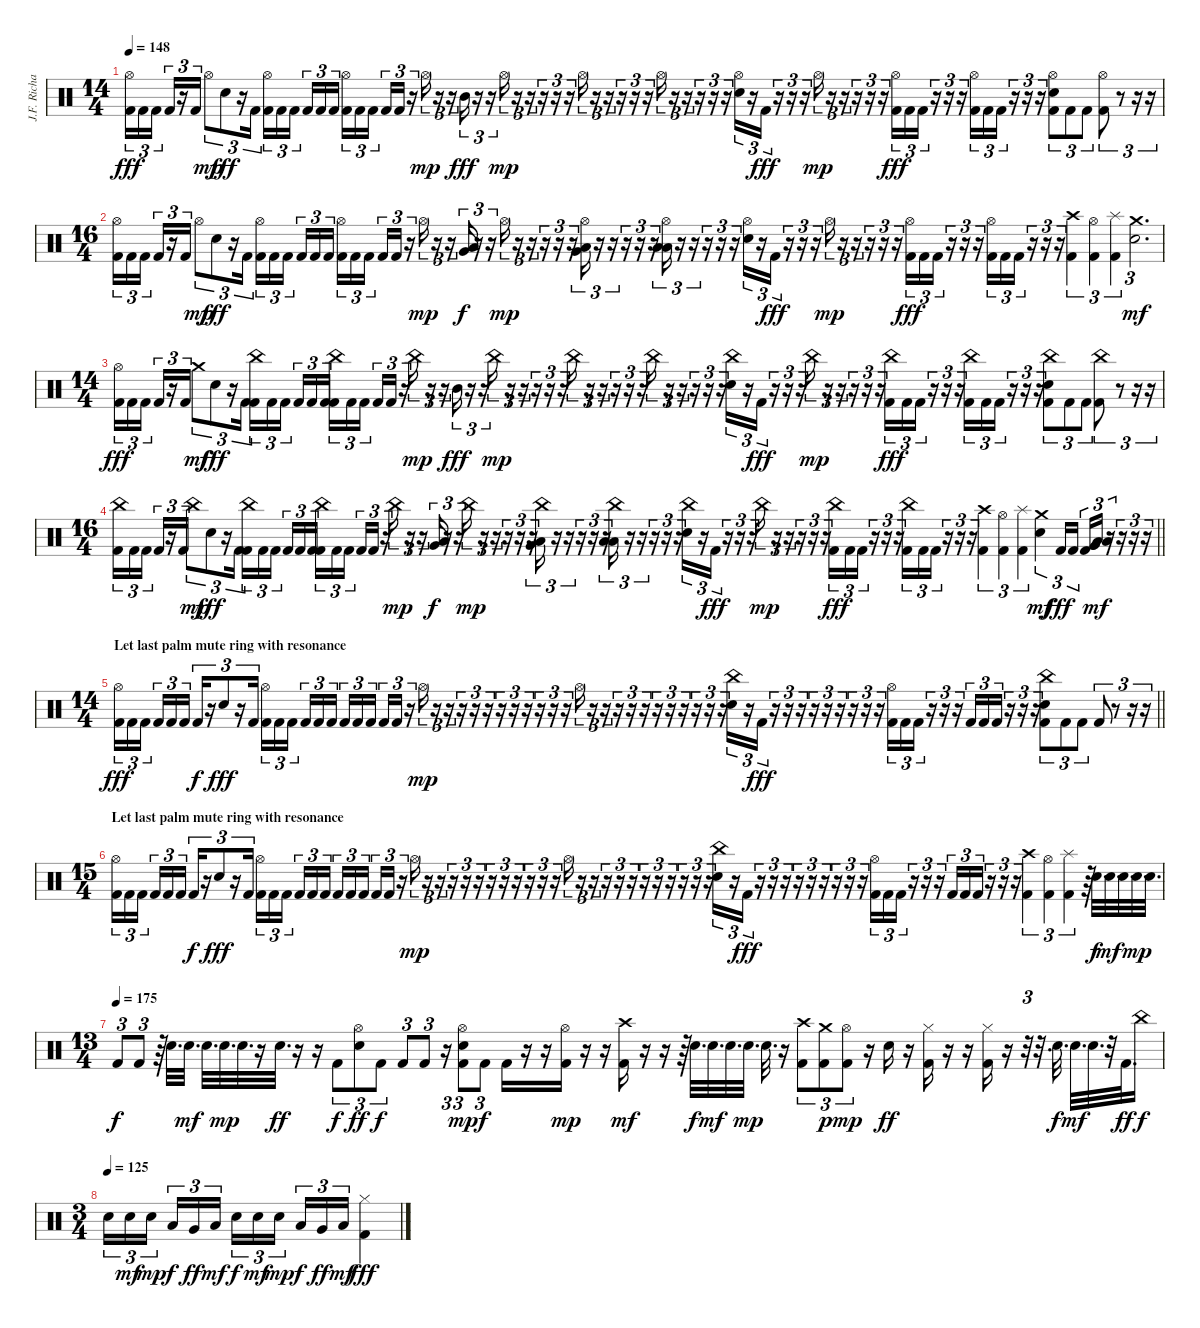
\track ("J.F. Richards" "J.F. Richa") {instrument percussion}
\staff {score}
\articulation defaults
\ts (14 4)
\tempo 148
\clef neutral
\ks c
("Hi-Hat (open)" "Kick (hit) 2").16{tu (3 2) dy fff} "Kick (hit) 2".16{tu (3 2)} "Kick (hit) 2".16{tu (3 2) beam splitsecondary} "Kick (hit) 2".16{tu (3 2)} r.16{tu (3 2)} "Kick (hit) 2".16{tu (3 2)} "Hi-Hat (open)".8{tu (3 2) dy mp} "Electric Snare (hit)".8{tu (3 2) dy fff} r.16{tu (3 2)} "Kick (hit) 2".16{tu (3 2)} ("Hi-Hat (open)" "Kick (hit) 2").16{tu (3 2)} "Kick (hit) 2".16{tu (3 2)} "Kick (hit) 2".16{tu (3 2) beam splitsecondary} "Kick (hit) 2".16{tu (3 2)} "Kick (hit) 2".16{tu (3 2)} "Kick (hit) 2".16{tu (3 2)} ("Hi-Hat (open)" "Kick (hit) 2").16{tu (3 2)} "Kick (hit) 2".16{tu (3 2)} "Kick (hit) 2".16{tu (3 2) beam splitsecondary} "Kick (hit) 2".16{tu (3 2)} "Kick (hit) 2".16{tu (3 2)} r.16{tu (3 2)} "Hi-Hat (open)".16{tu (3 2) dy mp} r.16{tu (3 2)} r.16{tu (3 2)} "Mid Tom (hit)".16{tu (3 2) dy fff} r.16{tu (3 2)} r.16{tu (3 2)} "Hi-Hat (open)".16{tu (3 2) dy mp} r.16{tu (3 2)} r.16{tu (3 2)} r.16{tu (3 2)} r.16{tu (3 2)} r.16{tu (3 2)} "Hi-Hat (open)".16{tu (3 2)} r.16{tu (3 2)} r.16{tu (3 2)} r.16{tu (3 2)} r.16{tu (3 2)} r.16{tu (3 2)} "Hi-Hat (open)".16{tu (3 2)} r.16{tu (3 2)} r.16{tu (3 2)} r.16{tu (3 2)} r.16{tu (3 2)} r.16{tu (3 2)} ("Hi-Hat (open)" "Electric Snare (hit)").16{tu (3 2)} r.16{tu (3 2)} "Kick (hit) 2".16{tu (3 2) dy fff} r.16{tu (3 2)} r.16{tu (3 2)} r.16{tu (3 2)} "Hi-Hat (open)".16{tu (3 2) dy mp} r.16{tu (3 2)} r.16{tu (3 2)} r.16{tu (3 2)} r.16{tu (3 2)} r.16{tu (3 2)} ("Hi-Hat (open)" "Kick (hit) 2").16{tu (3 2) dy fff} "Kick (hit) 2".16{tu (3 2)} "Kick (hit) 2".16{tu (3 2)} r.16{tu (3 2)} r.16{tu (3 2)} r.16{tu (3 2)} ("Hi-Hat (open)" "Kick (hit) 2").16{tu (3 2)} "Kick (hit) 2".16{tu (3 2)} "Kick (hit) 2".16{tu (3 2)} r.16{tu (3 2)} r.16{tu (3 2)} r.16{tu (3 2)} ("Hi-Hat (open)" "Electric Snare (hit)" "Kick (hit) 2").8{tu (3 2)} "Kick (hit) 2".8{tu (3 2)} "Kick (hit) 2".8{tu (3 2)} ("Hi-Hat (open)" "Kick (hit) 2").8{tu (3 2)} r.8{tu (3 2)} r.16{tu (3 2)} r.16{tu (3 2)} |
\ts (16 4)
("Hi-Hat (open)" "Kick (hit) 2").16{tu (3 2)} "Kick (hit) 2".16{tu (3 2)} "Kick (hit) 2".16{tu (3 2) beam splitsecondary} "Kick (hit) 2".16{tu (3 2)} r.16{tu (3 2)} "Kick (hit) 2".16{tu (3 2)} "Hi-Hat (open)".8{tu (3 2) dy mp} "Electric Snare (hit)".8{tu (3 2) dy fff} r.16{tu (3 2)} "Kick (hit) 2".16{tu (3 2)} ("Hi-Hat (open)" "Kick (hit) 2").16{tu (3 2)} "Kick (hit) 2".16{tu (3 2)} "Kick (hit) 2".16{tu (3 2) beam splitsecondary} "Kick (hit) 2".16{tu (3 2)} "Kick (hit) 2".16{tu (3 2)} "Kick (hit) 2".16{tu (3 2)} ("Hi-Hat (open)" "Kick (hit) 2").16{tu (3 2)} "Kick (hit) 2".16{tu (3 2)} "Kick (hit) 2".16{tu (3 2) beam splitsecondary} "Kick (hit) 2".16{tu (3 2)} "Kick (hit) 2".16{tu (3 2)} r.16{tu (3 2)} "Hi-Hat (open)".16{tu (3 2) dy mp} r.16{tu (3 2)} r.16{tu (3 2)} ("Very Low Tom (hit)" "Low Tom (hit)").16{tu (3 2) dy f} r.16{tu (3 2)} r.16{tu (3 2)} "Hi-Hat (open)".16{tu (3 2) dy mp} r.16{tu (3 2)} r.16{tu (3 2)} r.16{tu (3 2)} r.16{tu (3 2)} r.16{tu (3 2)} ("Hi-Hat (open)" "Low Floor Tom (hit)" "Very Low Tom (hit)").16{tu (3 2)} r.16{tu (3 2)} r.16{tu (3 2)} r.16{tu (3 2)} r.16{tu (3 2)} r.16{tu (3 2)} ("Hi-Hat (open)" "Low Floor Tom (hit)" "Low Floor Tom (hit)").16{tu (3 2)} r.16{tu (3 2)} r.16{tu (3 2)} r.16{tu (3 2)} r.16{tu (3 2)} r.16{tu (3 2)} ("Hi-Hat (open)" "Electric Snare (hit)").16{tu (3 2)} r.16{tu (3 2)} "Kick (hit) 2".16{tu (3 2) dy fff} r.16{tu (3 2)} r.16{tu (3 2)} r.16{tu (3 2)} "Hi-Hat (open)".16{tu (3 2) dy mp} r.16{tu (3 2)} r.16{tu (3 2)} r.16{tu (3 2)} r.16{tu (3 2)} r.16{tu (3 2)} ("Hi-Hat (open)" "Kick (hit) 2").16{tu (3 2) dy fff} "Kick (hit) 2".16{tu (3 2)} "Kick (hit) 2".16{tu (3 2)} r.16{tu (3 2)} r.16{tu (3 2)} r.16{tu (3 2)} ("Hi-Hat (open)" "Kick (hit) 2").16{tu (3 2)} "Kick (hit) 2".16{tu (3 2)} "Kick (hit) 2".16{tu (3 2)} r.16{tu (3 2)} r.16{tu (3 2)} r.16{tu (3 2)} ("Crash high (hit)" "Kick (hit) 2").4{tu (3 2)} ("Hi-Hat (open)" "Kick (hit) 2").4{tu (3 2)} ("Splash (hit)" "Kick (hit) 2").4{tu (3 2)} ("Crash medium (hit)" "Electric Snare (hit)").2{d tu (3 2) dy mf} |
\ts (14 4)
("Hi-Hat (open)" "Kick (hit) 2").16{tu (3 2) dy fff} "Kick (hit) 2".16{tu (3 2)} "Kick (hit) 2".16{tu (3 2) beam splitsecondary} "Kick (hit) 2".16{tu (3 2)} r.16{tu (3 2)} "Kick (hit) 2".16{tu (3 2)} "Crash medium (hit)".8{tu (3 2) dy mf} "Electric Snare (hit)".8{tu (3 2) dy fff} r.16{tu (3 2)} "Kick (hit) 2".16{tu (3 2)} ("China (hit)" "Kick (hit) 2").16{tu (3 2)} "Kick (hit) 2".16{tu (3 2)} "Kick (hit) 2".16{tu (3 2) beam splitsecondary} "Kick (hit) 2".16{tu (3 2)} "Kick (hit) 2".16{tu (3 2)} "Kick (hit) 2".16{tu (3 2)} ("China (hit)" "Kick (hit) 2").16{tu (3 2)} "Kick (hit) 2".16{tu (3 2)} "Kick (hit) 2".16{tu (3 2) beam splitsecondary} "Kick (hit) 2".16{tu (3 2)} "Kick (hit) 2".16{tu (3 2)} r.16{tu (3 2)} "China (hit)".16{tu (3 2) dy mp} r.16{tu (3 2)} r.16{tu (3 2)} "Mid Tom (hit)".16{tu (3 2) dy fff} r.16{tu (3 2)} r.16{tu (3 2)} "China (hit)".16{tu (3 2) dy mp} r.16{tu (3 2)} r.16{tu (3 2)} r.16{tu (3 2)} r.16{tu (3 2)} r.16{tu (3 2)} "China (hit)".16{tu (3 2)} r.16{tu (3 2)} r.16{tu (3 2)} r.16{tu (3 2)} r.16{tu (3 2)} r.16{tu (3 2)} "China (hit)".16{tu (3 2)} r.16{tu (3 2)} r.16{tu (3 2)} r.16{tu (3 2)} r.16{tu (3 2)} r.16{tu (3 2)} ("China (hit)" "Electric Snare (hit)").16{tu (3 2)} r.16{tu (3 2)} "Kick (hit) 2".16{tu (3 2) dy fff} r.16{tu (3 2)} r.16{tu (3 2)} r.16{tu (3 2)} "China (hit)".16{tu (3 2) dy mp} r.16{tu (3 2)} r.16{tu (3 2)} r.16{tu (3 2)} r.16{tu (3 2)} r.16{tu (3 2)} ("China (hit)" "Kick (hit) 2").16{tu (3 2) dy fff} "Kick (hit) 2".16{tu (3 2)} "Kick (hit) 2".16{tu (3 2)} r.16{tu (3 2)} r.16{tu (3 2)} r.16{tu (3 2)} ("China (hit)" "Kick (hit) 2").16{tu (3 2)} "Kick (hit) 2".16{tu (3 2)} "Kick (hit) 2".16{tu (3 2)} r.16{tu (3 2)} r.16{tu (3 2)} r.16{tu (3 2)} ("China (hit)" "Electric Snare (hit)" "Kick (hit) 2").8{tu (3 2)} "Kick (hit) 2".8{tu (3 2)} "Kick (hit) 2".8{tu (3 2)} ("China (hit)" "Kick (hit) 2").8{tu (3 2)} r.8{tu (3 2)} r.16{tu (3 2)} r.16{tu (3 2)} |
\ts (16 4)
\barLineRight lightlight
("China (hit)" "Kick (hit) 2").16{tu (3 2)} "Kick (hit) 2".16{tu (3 2)} "Kick (hit) 2".16{tu (3 2) beam splitsecondary} "Kick (hit) 2".16{tu (3 2)} r.16{tu (3 2)} "Kick (hit) 2".16{tu (3 2)} "China (hit)".8{tu (3 2) dy mp} "Electric Snare (hit)".8{tu (3 2) dy fff} r.16{tu (3 2)} "Kick (hit) 2".16{tu (3 2)} ("China (hit)" "Kick (hit) 2").16{tu (3 2)} "Kick (hit) 2".16{tu (3 2)} "Kick (hit) 2".16{tu (3 2) beam splitsecondary} "Kick (hit) 2".16{tu (3 2)} "Kick (hit) 2".16{tu (3 2)} "Kick (hit) 2".16{tu (3 2)} ("China (hit)" "Kick (hit) 2").16{tu (3 2)} "Kick (hit) 2".16{tu (3 2)} "Kick (hit) 2".16{tu (3 2) beam splitsecondary} "Kick (hit) 2".16{tu (3 2)} "Kick (hit) 2".16{tu (3 2)} r.16{tu (3 2)} "China (hit)".16{tu (3 2) dy mp} r.16{tu (3 2)} r.16{tu (3 2)} ("Very Low Tom (hit)" "Low Tom (hit)").16{tu (3 2) dy f} r.16{tu (3 2)} r.16{tu (3 2)} "China (hit)".16{tu (3 2) dy mp} r.16{tu (3 2)} r.16{tu (3 2)} r.16{tu (3 2)} r.16{tu (3 2)} r.16{tu (3 2)} ("China (hit)" "Low Floor Tom (hit)" "Very Low Tom (hit)").16{tu (3 2)} r.16{tu (3 2)} r.16{tu (3 2)} r.16{tu (3 2)} r.16{tu (3 2)} r.16{tu (3 2)} ("China (hit)" "Low Floor Tom (hit)" "Low Floor Tom (hit)").16{tu (3 2)} r.16{tu (3 2)} r.16{tu (3 2)} r.16{tu (3 2)} r.16{tu (3 2)} r.16{tu (3 2)} ("China (hit)" "Electric Snare (hit)").16{tu (3 2)} r.16{tu (3 2)} "Kick (hit) 2".16{tu (3 2) dy fff} r.16{tu (3 2)} r.16{tu (3 2)} r.16{tu (3 2)} "China (hit)".16{tu (3 2) dy mp} r.16{tu (3 2)} r.16{tu (3 2)} r.16{tu (3 2)} r.16{tu (3 2)} r.16{tu (3 2)} ("China (hit)" "Kick (hit) 2").16{tu (3 2) dy fff} "Kick (hit) 2".16{tu (3 2)} "Kick (hit) 2".16{tu (3 2)} r.16{tu (3 2)} r.16{tu (3 2)} r.16{tu (3 2)} ("China (hit)" "Kick (hit) 2").16{tu (3 2)} "Kick (hit) 2".16{tu (3 2)} "Kick (hit) 2".16{tu (3 2)} r.16{tu (3 2)} r.16{tu (3 2)} r.16{tu (3 2)} ("Crash high (hit)" "Kick (hit) 2").4{tu (3 2)} ("Hi-Hat (open)" "Kick (hit) 2").4{tu (3 2)} ("Splash (hit)" "Kick (hit) 2").4{tu (3 2)} ("Crash medium (hit)" "Electric Snare (hit)").4{tu (3 2) dy mf} "Kick (hit) 2".16{tu (3 2) dy fff} "Kick (hit) 2".16{tu (3 2)} ("Very Low Tom (hit)" "Very Low Tom (hit)" "Kick (hit) 2").16{tu (3 2)} ("Low Floor Tom (hit)" "Low Floor Tom (hit)").16{tu (3 2) dy mf} r.16{tu (3 2)} r.16{tu (3 2)} r.16{tu (3 2)} r.16{tu (3 2)} |
\ts (14 4)
\section ("" "Let last palm mute ring with resonance")
\barLineRight lightlight
("Hi-Hat (open)" "Kick (hit) 2").16{tu (3 2) dy fff} "Kick (hit) 2".16{tu (3 2)} "Kick (hit) 2".16{tu (3 2) beam splitsecondary} "Kick (hit) 2".16{tu (3 2)} "Kick (hit) 2".16{tu (3 2)} "Kick (hit) 2".16{tu (3 2)} "Kick (hit) 2".16{tu (3 2) dy f} r.16{tu (3 2)} "Electric Snare (hit)".8{tu (3 2) dy fff} r.16{tu (3 2)} "Kick (hit) 2".16{tu (3 2)} ("Hi-Hat (open)" "Kick (hit) 2").16{tu (3 2)} "Kick (hit) 2".16{tu (3 2)} "Kick (hit) 2".16{tu (3 2) beam splitsecondary} "Kick (hit) 2".16{tu (3 2)} "Kick (hit) 2".16{tu (3 2)} "Kick (hit) 2".16{tu (3 2)} "Kick (hit) 2".16{tu (3 2)} "Kick (hit) 2".16{tu (3 2)} "Kick (hit) 2".16{tu (3 2) beam splitsecondary} "Kick (hit) 2".16{tu (3 2)} "Kick (hit) 2".16{tu (3 2)} r.16{tu (3 2)} "Hi-Hat (open)".16{tu (3 2) dy mp} r.16{tu (3 2)} r.16{tu (3 2)} r.16{tu (3 2)} r.16{tu (3 2)} r.16{tu (3 2)} r.16{tu (3 2)} r.16{tu (3 2)} r.16{tu (3 2)} r.16{tu (3 2)} r.16{tu (3 2)} r.16{tu (3 2)} "Hi-Hat (open)".16{tu (3 2)} r.16{tu (3 2)} r.16{tu (3 2)} r.16{tu (3 2)} r.16{tu (3 2)} r.16{tu (3 2)} r.16{tu (3 2)} r.16{tu (3 2)} r.16{tu (3 2)} r.16{tu (3 2)} r.16{tu (3 2)} r.16{tu (3 2)} ("China (hit)" "Electric Snare (hit)").16{tu (3 2)} r.16{tu (3 2)} "Kick (hit) 2".16{tu (3 2) dy fff} r.16{tu (3 2)} r.16{tu (3 2)} r.16{tu (3 2)} r.16{tu (3 2)} r.16{tu (3 2)} r.16{tu (3 2)} r.16{tu (3 2)} r.16{tu (3 2)} r.16{tu (3 2)} ("Hi-Hat (open)" "Kick (hit) 2").16{tu (3 2)} "Kick (hit) 2".16{tu (3 2)} "Kick (hit) 2".16{tu (3 2)} r.16{tu (3 2)} r.16{tu (3 2)} r.16{tu (3 2)} "Kick (hit) 2".16{tu (3 2)} "Kick (hit) 2".16{tu (3 2)} "Kick (hit) 2".16{tu (3 2)} r.16{tu (3 2)} r.16{tu (3 2)} r.16{tu (3 2)} ("China (hit)" "Electric Snare (hit)" "Kick (hit) 2").8{tu (3 2)} "Kick (hit) 2".8{tu (3 2)} "Kick (hit) 2".8{tu (3 2)} "Kick (hit) 2".8{tu (3 2)} r.8{tu (3 2)} r.16{tu (3 2)} r.16{tu (3 2)} |
\ts (15 4)
\section ("" "Let last palm mute ring with resonance")
("Hi-Hat (open)" "Kick (hit) 2").16{tu (3 2)} "Kick (hit) 2".16{tu (3 2)} "Kick (hit) 2".16{tu (3 2) beam splitsecondary} "Kick (hit) 2".16{tu (3 2)} "Kick (hit) 2".16{tu (3 2)} "Kick (hit) 2".16{tu (3 2) beam splitsecondary} "Kick (hit) 2".16{tu (3 2) dy f} r.16{tu (3 2)} "Electric Snare (hit)".8{tu (3 2) dy fff} r.16{tu (3 2)} "Kick (hit) 2".16{tu (3 2) beam splitsecondary} ("Hi-Hat (open)" "Kick (hit) 2").16{tu (3 2)} "Kick (hit) 2".16{tu (3 2)} "Kick (hit) 2".16{tu (3 2) beam splitsecondary} "Kick (hit) 2".16{tu (3 2)} "Kick (hit) 2".16{tu (3 2)} "Kick (hit) 2".16{tu (3 2)} "Kick (hit) 2".16{tu (3 2)} "Kick (hit) 2".16{tu (3 2)} "Kick (hit) 2".16{tu (3 2) beam splitsecondary} "Kick (hit) 2".16{tu (3 2)} "Kick (hit) 2".16{tu (3 2)} r.16{tu (3 2)} "Hi-Hat (open)".16{tu (3 2) dy mp} r.16{tu (3 2)} r.16{tu (3 2)} r.16{tu (3 2)} r.16{tu (3 2)} r.16{tu (3 2)} r.16{tu (3 2)} r.16{tu (3 2)} r.16{tu (3 2)} r.16{tu (3 2)} r.16{tu (3 2)} r.16{tu (3 2)} "Hi-Hat (open)".16{tu (3 2)} r.16{tu (3 2)} r.16{tu (3 2)} r.16{tu (3 2)} r.16{tu (3 2)} r.16{tu (3 2)} r.16{tu (3 2)} r.16{tu (3 2)} r.16{tu (3 2)} r.16{tu (3 2)} r.16{tu (3 2)} r.16{tu (3 2)} ("China (hit)" "Electric Snare (hit)").16{tu (3 2)} r.16{tu (3 2)} "Kick (hit) 2".16{tu (3 2) dy fff} r.16{tu (3 2)} r.16{tu (3 2)} r.16{tu (3 2)} r.16{tu (3 2)} r.16{tu (3 2)} r.16{tu (3 2)} r.16{tu (3 2)} r.16{tu (3 2)} r.16{tu (3 2)} ("Hi-Hat (open)" "Kick (hit) 2").16{tu (3 2)} "Kick (hit) 2".16{tu (3 2)} "Kick (hit) 2".16{tu (3 2)} r.16{tu (3 2)} r.16{tu (3 2)} r.16{tu (3 2)} "Kick (hit) 2".16{tu (3 2)} "Kick (hit) 2".16{tu (3 2)} "Kick (hit) 2".16{tu (3 2)} r.16{tu (3 2)} r.16{tu (3 2)} r.16{tu (3 2)} ("Crash high (hit)" "Kick (hit) 2").4{tu (3 2)} ("Hi-Hat (open)" "Kick (hit) 2").4{tu (3 2)} ("Splash (hit)" "Kick (hit) 2").4{tu (3 2)} r.64 "Electric Snare (hit)".32{d dy f} "Electric Snare (hit)".32{d dy mf} "Electric Snare (hit)".32{d} "Electric Snare (hit)".32{d dy mp} "Electric Snare (hit)".32{d} |
\ts (13 4)
\tempo (175)
"Kick (hit) 2".8{tu (3 2) dy f} "Kick (hit) 2".8{tu (3 2)} r.64 "Electric Snare (hit)".32{d} "Electric Snare (hit)".32{d dy mf} "Electric Snare (hit)".32{d} "Electric Snare (hit)".32{d dy mp} "Electric Snare (hit)".32{d} r.16 "Electric Snare (hit)".32{d dy ff} r.16 r.16 "Kick (hit) 2".8{tu (3 2) dy f} ("Hi-Hat (open)" "Electric Snare (hit)").8{tu (3 2) dy ff} "Kick (hit) 2".8{tu (3 2) dy f} "Kick (hit) 2".8{tu (3 2)} "Kick (hit) 2".8{tu (3 2)} r.16{tu (3 2)} ("Hi-Hat (open)" "Electric Snare (hit)" "Kick (hit) 2").8{tu (3 2) dy mp} "Kick (hit) 2".8{tu (3 2) dy f} "Kick (hit) 2".16 r.16 r.16 ("Hi-Hat (open)" "Kick (hit) 2").16{dy mp} r.16 r.16 ("Crash high (hit)" "Kick (hit) 2").16{dy mf} r.16 r.16 r.64 "Electric Snare (hit)".32{d dy f} "Electric Snare (hit)".32{d dy mf} "Electric Snare (hit)".32{d} "Electric Snare (hit)".32{d dy mp} "Electric Snare (hit)".32{d} r.16 ("Crash high (hit)" "Kick (hit) 2").8{tu (3 2)} ("Crash medium (hit)" "Kick (hit) 2").8{tu (3 2) dy p} ("Hi-Hat (open)" "Kick (hit) 2").8{tu (3 2) dy mp} r.16 "Electric Snare (hit)".16{dy ff} r.16 ("Hi-Hat (closed)" "Kick (hit) 2").16 r.16 r.16 ("Hi-Hat (closed)" "Kick (hit) 2").16 r.16 r.32{tu (3 2)} r.32{d} "Electric Snare (hit)".32{d dy f} "Electric Snare (hit)".32{d dy mf} "Electric Snare (hit)".32{d} r.32 "Kick (hit) 2".32{d dy ff} "China (hit)".16{dy f} |
\ts (3 4)
\tempo (125)
"Electric Snare (hit)".16{tu (3 2)} "Electric Snare (hit)".16{tu (3 2) dy mf} "Electric Snare (hit)".16{tu (3 2) dy mp beam splitsecondary} "Low Tom (hit)".16{tu (3 2) dy f} "Very Low Tom (hit)".16{tu (3 2) dy ff} "Low Tom (hit)".16{tu (3 2) dy mf} "Electric Snare (hit)".16{tu (3 2) dy f} "Electric Snare (hit)".16{tu (3 2) dy mf} "Electric Snare (hit)".16{tu (3 2) dy mp beam splitsecondary} "Low Tom (hit)".16{tu (3 2) dy f} "Very Low Tom (hit)".16{tu (3 2) dy ff} "Low Tom (hit)".16{tu (3 2) dy mf} ("Hi-Hat (closed)" "Kick (hit) 2").4{dy fff}
